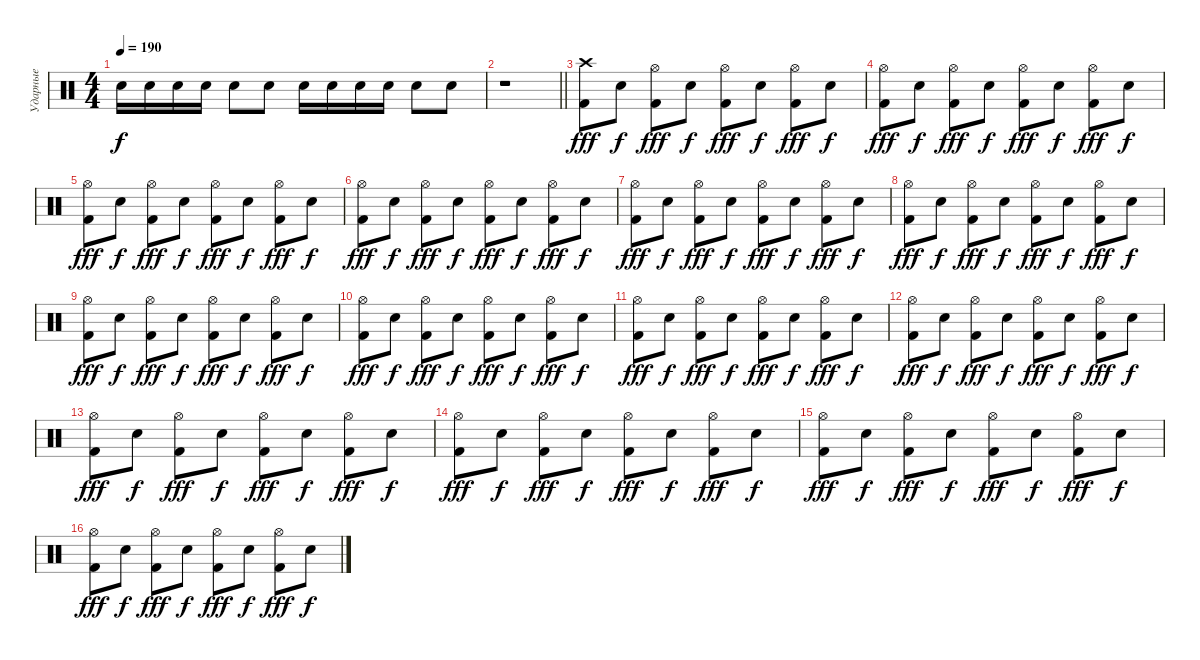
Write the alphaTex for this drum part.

\track ("Ударные" "Ударные") {instrument percussion}
\staff
\articulation defaults
\ts (4 4)
\tempo 190
\clef neutral
\ks c "Snare (hit) 2".16{dy f} "Electric Snare (hit)".16 "Electric Snare (hit)".16 "Electric Snare (hit)".16 "Electric Snare (hit)".8 "Snare (hit) 2".8 "Snare (hit) 2".16 "Electric Snare (hit)".16 "Electric Snare (hit)".16 "Electric Snare (hit)".16 "Electric Snare (hit)".8 "Snare (hit) 2".8
|
\barLineRight lightlight
r.1 |
("Kick (hit) 2" "Crash high (hit)").8{dy fff} "Snare (hit) 2".8{dy f} ("Kick (hit) 2" "Hi-Hat (open)").8{dy fff} "Snare (hit) 2".8{dy f} ("Kick (hit) 2" "Hi-Hat (open)").8{dy fff} "Snare (hit) 2".8{dy f} ("Kick (hit) 2" "Hi-Hat (open)").8{dy fff} "Snare (hit) 2".8{dy f} |
("Kick (hit) 2" "Hi-Hat (open)").8{dy fff} "Snare (hit) 2".8{dy f} ("Kick (hit) 2" "Hi-Hat (open)").8{dy fff} "Snare (hit) 2".8{dy f} ("Kick (hit) 2" "Hi-Hat (open)").8{dy fff} "Snare (hit) 2".8{dy f} ("Kick (hit) 2" "Hi-Hat (open)").8{dy fff} "Snare (hit) 2".8{dy f} |
("Kick (hit) 2" "Hi-Hat (open)").8{dy fff} "Snare (hit) 2".8{dy f} ("Kick (hit) 2" "Hi-Hat (open)").8{dy fff} "Snare (hit) 2".8{dy f} ("Kick (hit) 2" "Hi-Hat (open)").8{dy fff} "Snare (hit) 2".8{dy f} ("Kick (hit) 2" "Hi-Hat (open)").8{dy fff} "Snare (hit) 2".8{dy f} |
("Kick (hit) 2" "Hi-Hat (open)").8{dy fff} "Snare (hit) 2".8{dy f} ("Kick (hit) 2" "Hi-Hat (open)").8{dy fff} "Snare (hit) 2".8{dy f} ("Kick (hit) 2" "Hi-Hat (open)").8{dy fff} "Snare (hit) 2".8{dy f} ("Kick (hit) 2" "Hi-Hat (open)").8{dy fff} "Snare (hit) 2".8{dy f} |
("Kick (hit) 2" "Hi-Hat (open)").8{dy fff} "Snare (hit) 2".8{dy f} ("Kick (hit) 2" "Hi-Hat (open)").8{dy fff} "Snare (hit) 2".8{dy f} ("Kick (hit) 2" "Hi-Hat (open)").8{dy fff} "Snare (hit) 2".8{dy f} ("Kick (hit) 2" "Hi-Hat (open)").8{dy fff} "Snare (hit) 2".8{dy f} |
("Kick (hit) 2" "Hi-Hat (open)").8{dy fff} "Snare (hit) 2".8{dy f} ("Kick (hit) 2" "Hi-Hat (open)").8{dy fff} "Snare (hit) 2".8{dy f} ("Kick (hit) 2" "Hi-Hat (open)").8{dy fff} "Snare (hit) 2".8{dy f} ("Kick (hit) 2" "Hi-Hat (open)").8{dy fff} "Snare (hit) 2".8{dy f} |
("Kick (hit) 2" "Hi-Hat (open)").8{dy fff} "Snare (hit) 2".8{dy f} ("Kick (hit) 2" "Hi-Hat (open)").8{dy fff} "Snare (hit) 2".8{dy f} ("Kick (hit) 2" "Hi-Hat (open)").8{dy fff} "Snare (hit) 2".8{dy f} ("Kick (hit) 2" "Hi-Hat (open)").8{dy fff} "Snare (hit) 2".8{dy f} |
("Kick (hit) 2" "Hi-Hat (open)").8{dy fff} "Snare (hit) 2".8{dy f} ("Kick (hit) 2" "Hi-Hat (open)").8{dy fff} "Snare (hit) 2".8{dy f} ("Kick (hit) 2" "Hi-Hat (open)").8{dy fff} "Snare (hit) 2".8{dy f} ("Kick (hit) 2" "Hi-Hat (open)").8{dy fff} "Snare (hit) 2".8{dy f} |
("Kick (hit) 2" "Hi-Hat (open)").8{dy fff} "Snare (hit) 2".8{dy f} ("Kick (hit) 2" "Hi-Hat (open)").8{dy fff} "Snare (hit) 2".8{dy f} ("Kick (hit) 2" "Hi-Hat (open)").8{dy fff} "Snare (hit) 2".8{dy f} ("Kick (hit) 2" "Hi-Hat (open)").8{dy fff} "Snare (hit) 2".8{dy f} |
("Kick (hit) 2" "Hi-Hat (open)").8{dy fff} "Snare (hit) 2".8{dy f} ("Kick (hit) 2" "Hi-Hat (open)").8{dy fff} "Snare (hit) 2".8{dy f} ("Kick (hit) 2" "Hi-Hat (open)").8{dy fff} "Snare (hit) 2".8{dy f} ("Kick (hit) 2" "Hi-Hat (open)").8{dy fff} "Snare (hit) 2".8{dy f} |
("Kick (hit) 2" "Hi-Hat (open)").8{dy fff} "Snare (hit) 2".8{dy f} ("Kick (hit) 2" "Hi-Hat (open)").8{dy fff} "Snare (hit) 2".8{dy f} ("Kick (hit) 2" "Hi-Hat (open)").8{dy fff} "Snare (hit) 2".8{dy f} ("Kick (hit) 2" "Hi-Hat (open)").8{dy fff} "Snare (hit) 2".8{dy f} |
("Kick (hit) 2" "Hi-Hat (open)").8{dy fff} "Snare (hit) 2".8{dy f} ("Kick (hit) 2" "Hi-Hat (open)").8{dy fff} "Snare (hit) 2".8{dy f} ("Kick (hit) 2" "Hi-Hat (open)").8{dy fff} "Snare (hit) 2".8{dy f} ("Kick (hit) 2" "Hi-Hat (open)").8{dy fff} "Snare (hit) 2".8{dy f} |
("Kick (hit) 2" "Hi-Hat (open)").8{dy fff} "Snare (hit) 2".8{dy f} ("Kick (hit) 2" "Hi-Hat (open)").8{dy fff} "Snare (hit) 2".8{dy f} ("Kick (hit) 2" "Hi-Hat (open)").8{dy fff} "Snare (hit) 2".8{dy f} ("Kick (hit) 2" "Hi-Hat (open)").8{dy fff} "Snare (hit) 2".8{dy f} |
("Kick (hit) 2" "Hi-Hat (open)").8{dy fff} "Snare (hit) 2".8{dy f} ("Kick (hit) 2" "Hi-Hat (open)").8{dy fff} "Snare (hit) 2".8{dy f} ("Kick (hit) 2" "Hi-Hat (open)").8{dy fff} "Snare (hit) 2".8{dy f} ("Kick (hit) 2" "Hi-Hat (open)").8{dy fff} "Snare (hit) 2".8{dy f}
